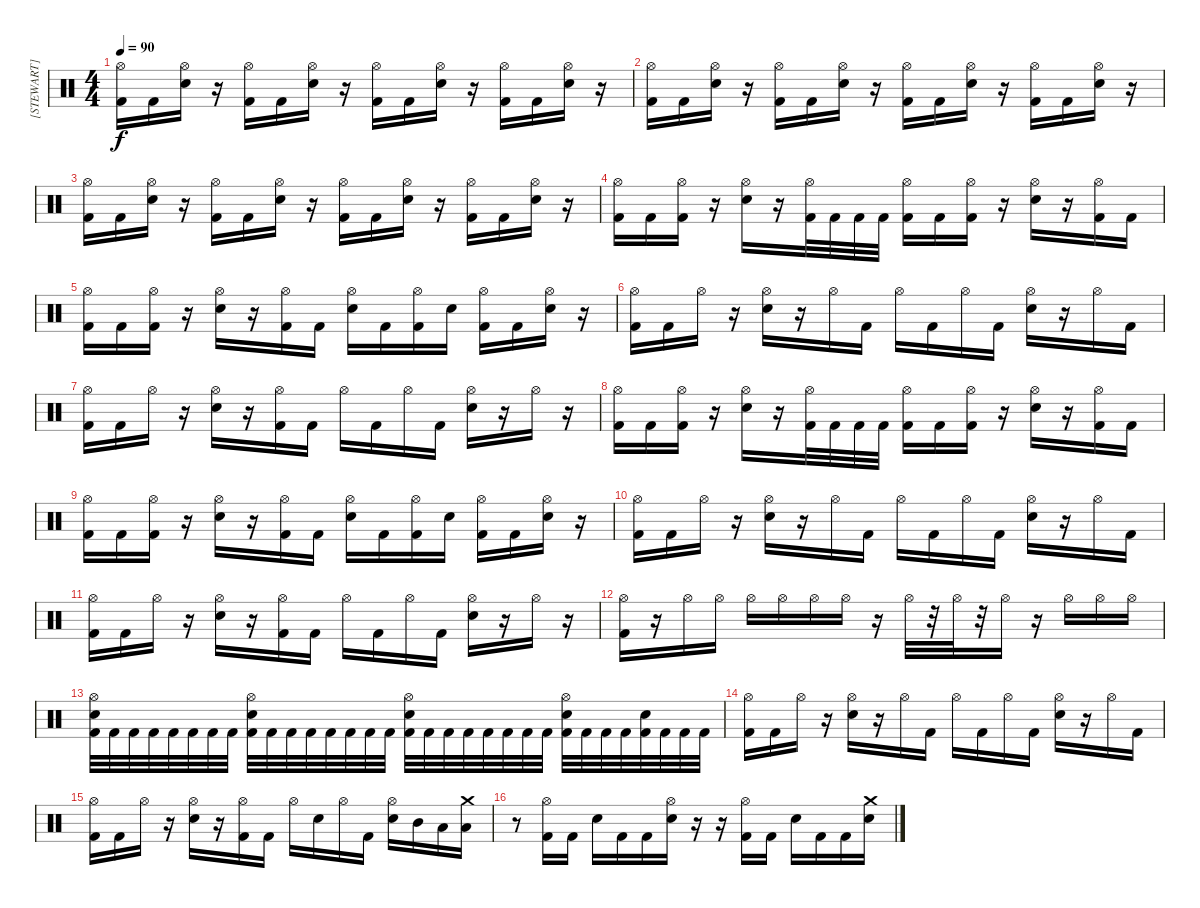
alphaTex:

\track ("[STEWART]" "[STEWART]") {instrument percussion}
\staff {score}
\articulation defaults
\ts (4 4)
\tempo 90
\clef neutral
\ks c
("Hi-Hat (open)" "Kick (hit) 2").16{dy f} "Kick (hit) 2".16 ("Hi-Hat (open)" "Snare (hit) 2").16 r.16 ("Hi-Hat (open)" "Kick (hit) 2").16 "Kick (hit) 2".16 ("Hi-Hat (open)" "Snare (hit) 2").16 r.16 ("Hi-Hat (open)" "Kick (hit) 2").16 "Kick (hit) 2".16 ("Hi-Hat (open)" "Snare (hit) 2").16 r.16 ("Hi-Hat (open)" "Kick (hit) 2").16 "Kick (hit) 2".16 ("Hi-Hat (open)" "Snare (hit) 2").16 r.16 |
("Hi-Hat (open)" "Kick (hit) 2").16 "Kick (hit) 2".16 ("Hi-Hat (open)" "Snare (hit) 2").16 r.16 ("Hi-Hat (open)" "Kick (hit) 2").16 "Kick (hit) 2".16 ("Hi-Hat (open)" "Snare (hit) 2").16 r.16 ("Hi-Hat (open)" "Kick (hit) 2").16 "Kick (hit) 2".16 ("Hi-Hat (open)" "Snare (hit) 2").16 r.16 ("Hi-Hat (open)" "Kick (hit) 2").16 "Kick (hit) 2".16 ("Hi-Hat (open)" "Snare (hit) 2").16 r.16 |
("Hi-Hat (open)" "Kick (hit) 2").16 "Kick (hit) 2".16 ("Hi-Hat (open)" "Snare (hit) 2").16 r.16 ("Hi-Hat (open)" "Kick (hit) 2").16 "Kick (hit) 2".16 ("Hi-Hat (open)" "Snare (hit) 2").16 r.16 ("Hi-Hat (open)" "Kick (hit) 2").16 "Kick (hit) 2".16 ("Hi-Hat (open)" "Snare (hit) 2").16 r.16 ("Hi-Hat (open)" "Kick (hit) 2").16 "Kick (hit) 2".16 ("Hi-Hat (open)" "Snare (hit) 2").16 r.16 |
("Hi-Hat (open)" "Kick (hit) 2").16 "Kick (hit) 2".16 ("Hi-Hat (open)" "Kick (hit) 2").16 r.16 ("Hi-Hat (open)" "Snare (hit) 2").16 r.16 ("Hi-Hat (open)" "Kick (hit) 2").32 "Kick (hit) 2".32 "Kick (hit) 2".32 "Kick (hit) 2".32 ("Hi-Hat (open)" "Kick (hit) 2").16 "Kick (hit) 2".16 ("Hi-Hat (open)" "Kick (hit) 2").16 r.16 ("Hi-Hat (open)" "Snare (hit) 2").16 r.16 ("Hi-Hat (open)" "Kick (hit) 2").16 "Kick (hit) 2".16 |
("Hi-Hat (open)" "Kick (hit) 2").16 "Kick (hit) 2".16 ("Hi-Hat (open)" "Kick (hit) 2").16 r.16 ("Hi-Hat (open)" "Snare (hit) 2").16 r.16 ("Hi-Hat (open)" "Kick (hit) 2").16 "Kick (hit) 2".16 ("Hi-Hat (open)" "Snare (hit) 2").16 "Kick (hit) 2".16 ("Hi-Hat (open)" "Kick (hit) 2").16 "Snare (hit) 2".16 ("Hi-Hat (open)" "Kick (hit) 2").16 "Kick (hit) 2".16 ("Hi-Hat (open)" "Snare (hit) 2").16 r.16 |
("Hi-Hat (open)" "Kick (hit) 2").16 "Kick (hit) 2".16 "Hi-Hat (open)".16 r.16 ("Hi-Hat (open)" "Snare (hit) 2").16 r.16 "Hi-Hat (open)".16 "Kick (hit) 2".16 "Hi-Hat (open)".16 "Kick (hit) 2".16 "Hi-Hat (open)".16 "Kick (hit) 2".16 ("Hi-Hat (open)" "Snare (hit) 2").16 r.16 "Hi-Hat (open)".16 "Kick (hit) 2".16 |
("Hi-Hat (open)" "Kick (hit) 2").16 "Kick (hit) 2".16 "Hi-Hat (open)".16 r.16 ("Hi-Hat (open)" "Snare (hit) 2").16 r.16 ("Hi-Hat (open)" "Kick (hit) 2").16 "Kick (hit) 2".16 "Hi-Hat (open)".16 "Kick (hit) 2".16 "Hi-Hat (open)".16 "Kick (hit) 2".16 ("Hi-Hat (open)" "Snare (hit) 2").16 r.16 "Hi-Hat (open)".16 r.16 |
("Hi-Hat (open)" "Kick (hit) 2").16 "Kick (hit) 2".16 ("Hi-Hat (open)" "Kick (hit) 2").16 r.16 ("Hi-Hat (open)" "Snare (hit) 2").16 r.16 ("Hi-Hat (open)" "Kick (hit) 2").32 "Kick (hit) 2".32 "Kick (hit) 2".32 "Kick (hit) 2".32 ("Hi-Hat (open)" "Kick (hit) 2").16 "Kick (hit) 2".16 ("Hi-Hat (open)" "Kick (hit) 2").16 r.16 ("Hi-Hat (open)" "Snare (hit) 2").16 r.16 ("Hi-Hat (open)" "Kick (hit) 2").16 "Kick (hit) 2".16 |
("Hi-Hat (open)" "Kick (hit) 2").16 "Kick (hit) 2".16 ("Hi-Hat (open)" "Kick (hit) 2").16 r.16 ("Hi-Hat (open)" "Snare (hit) 2").16 r.16 ("Hi-Hat (open)" "Kick (hit) 2").16 "Kick (hit) 2".16 ("Hi-Hat (open)" "Snare (hit) 2").16 "Kick (hit) 2".16 ("Hi-Hat (open)" "Kick (hit) 2").16 "Snare (hit) 2".16 ("Hi-Hat (open)" "Kick (hit) 2").16 "Kick (hit) 2".16 ("Hi-Hat (open)" "Snare (hit) 2").16 r.16 |
("Hi-Hat (open)" "Kick (hit) 2").16 "Kick (hit) 2".16 "Hi-Hat (open)".16 r.16 ("Hi-Hat (open)" "Snare (hit) 2").16 r.16 "Hi-Hat (open)".16 "Kick (hit) 2".16 "Hi-Hat (open)".16 "Kick (hit) 2".16 "Hi-Hat (open)".16 "Kick (hit) 2".16 ("Hi-Hat (open)" "Snare (hit) 2").16 r.16 "Hi-Hat (open)".16 "Kick (hit) 2".16 |
("Hi-Hat (open)" "Kick (hit) 2").16 "Kick (hit) 2".16 "Hi-Hat (open)".16 r.16 ("Hi-Hat (open)" "Snare (hit) 2").16 r.16 ("Hi-Hat (open)" "Kick (hit) 2").16 "Kick (hit) 2".16 "Hi-Hat (open)".16 "Kick (hit) 2".16 "Hi-Hat (open)".16 "Kick (hit) 2".16 ("Hi-Hat (open)" "Snare (hit) 2").16 r.16 "Hi-Hat (open)".16 r.16 |
("Hi-Hat (open)" "Kick (hit) 2").16 r.16 "Hi-Hat (open)".16 "Hi-Hat (open)".16 "Hi-Hat (open)".16 "Hi-Hat (open)".16 "Hi-Hat (open)".16 "Hi-Hat (open)".16 r.16 "Hi-Hat (open)".32 r.32 "Hi-Hat (open)".32 r.32 "Hi-Hat (open)".16 r.16 "Hi-Hat (open)".16 "Hi-Hat (open)".16 "Hi-Hat (open)".16 |
("Hi-Hat (open)" "Snare (hit) 2" "Kick (hit) 2").32 "Kick (hit) 2".32 "Kick (hit) 2".32 "Kick (hit) 2".32 "Kick (hit) 2".32 "Kick (hit) 2".32 "Kick (hit) 2".32 "Kick (hit) 2".32 ("Hi-Hat (open)" "Snare (hit) 2" "Kick (hit) 2").32 "Kick (hit) 2".32 "Kick (hit) 2".32 "Kick (hit) 2".32 "Kick (hit) 2".32 "Kick (hit) 2".32 "Kick (hit) 2".32 "Kick (hit) 2".32 ("Hi-Hat (open)" "Snare (hit) 2" "Kick (hit) 2").32 "Kick (hit) 2".32 "Kick (hit) 2".32 "Kick (hit) 2".32 "Kick (hit) 2".32 "Kick (hit) 2".32 "Kick (hit) 2".32 "Kick (hit) 2".32 ("Hi-Hat (open)" "Snare (hit) 2" "Kick (hit) 2").32 "Kick (hit) 2".32 "Kick (hit) 2".32 "Kick (hit) 2".32 ("Snare (hit) 2" "Kick (hit) 2").32 "Kick (hit) 2".32 "Kick (hit) 2".32 "Kick (hit) 2".32 |
("Hi-Hat (open)" "Kick (hit) 2").16 "Kick (hit) 2".16 "Hi-Hat (open)".16 r.16 ("Hi-Hat (open)" "Snare (hit) 2").16 r.16 "Hi-Hat (open)".16 "Kick (hit) 2".16 "Hi-Hat (open)".16 "Kick (hit) 2".16 "Hi-Hat (open)".16 "Kick (hit) 2".16 ("Hi-Hat (open)" "Snare (hit) 2").16 r.16 "Hi-Hat (open)".16 "Kick (hit) 2".16 |
("Hi-Hat (open)" "Kick (hit) 2").16 "Kick (hit) 2".16 "Hi-Hat (open)".16 r.16 ("Hi-Hat (open)" "Snare (hit) 2").16 r.16 ("Hi-Hat (open)" "Kick (hit) 2").16 "Kick (hit) 2".16 "Hi-Hat (open)".16 "Snare (hit) 2".16 "Hi-Hat (open)".16 "Kick (hit) 2".16 ("Hi-Hat (open)" "Snare (hit) 2").16 "Mid Tom (hit)".16 "Low Tom (hit)".16 ("Crash medium (hit)" "Low Floor Tom (hit)").16 |
r.8 ("Hi-Hat (open)" "Kick (hit) 2").16 "Kick (hit) 2".16 "Snare (hit) 2".16 "Kick (hit) 2".16 "Kick (hit) 2".16 ("Hi-Hat (open)" "Snare (hit) 2").16 r.16 r.16 ("Hi-Hat (open)" "Kick (hit) 2").16 "Kick (hit) 2".16 "Snare (hit) 2".16 "Kick (hit) 2".16 "Kick (hit) 2".16 ("Crash medium (hit)" "Snare (hit) 2").16
